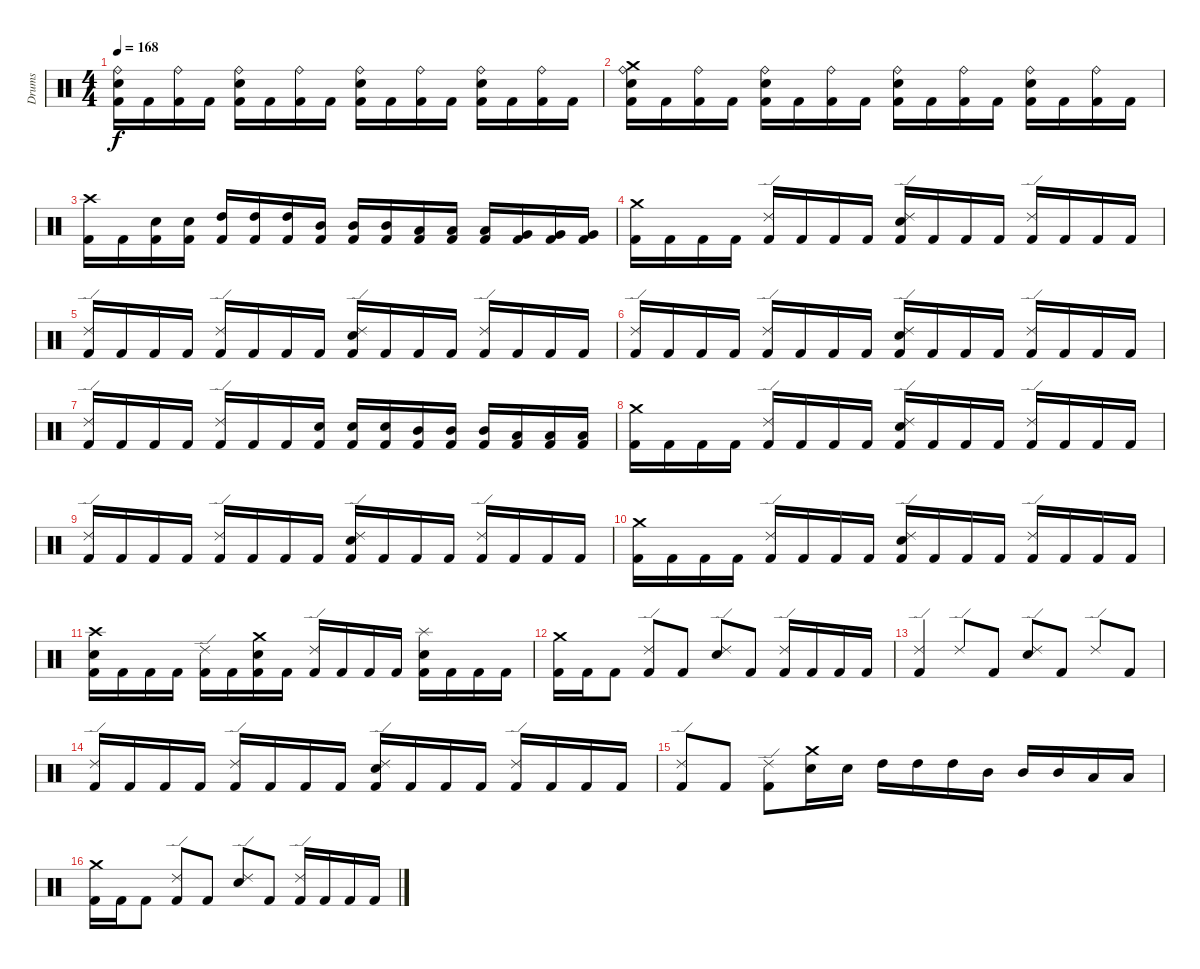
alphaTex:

\track ("Drums" "Drums") {instrument percussion}
\staff {score}
\articulation defaults
\ts (4 4)
\tempo 168
\clef neutral
\ks c
("Kick (hit) 2" "Snare (hit) 2" "Ride (bell)").16{dy f} "Kick (hit) 2".16 ("Kick (hit) 2" "Ride (bell)").16 "Kick (hit) 2".16 ("Kick (hit) 2" "Snare (hit) 2" "Ride (bell)").16 "Kick (hit) 2".16 ("Kick (hit) 2" "Ride (bell)").16 "Kick (hit) 2".16 ("Kick (hit) 2" "Snare (hit) 2" "Ride (bell)").16 "Kick (hit) 2".16 ("Kick (hit) 2" "Ride (bell)").16 "Kick (hit) 2".16 ("Kick (hit) 2" "Snare (hit) 2" "Ride (bell)").16 "Kick (hit) 2".16 ("Kick (hit) 2" "Ride (bell)").16 "Kick (hit) 2".16 |
("Kick (hit) 2" "Snare (hit) 2" "Ride (bell)" "Crash medium (hit)").16 "Kick (hit) 2".16 ("Kick (hit) 2" "Ride (bell)").16 "Kick (hit) 2".16 ("Kick (hit) 2" "Snare (hit) 2" "Ride (bell)").16 "Kick (hit) 2".16 ("Kick (hit) 2" "Ride (bell)").16 "Kick (hit) 2".16 ("Kick (hit) 2" "Snare (hit) 2" "Ride (bell)").16 "Kick (hit) 2".16 ("Kick (hit) 2" "Ride (bell)").16 "Kick (hit) 2".16 ("Kick (hit) 2" "Snare (hit) 2" "Ride (bell)").16 "Kick (hit) 2".16 ("Kick (hit) 2" "Ride (bell)").16 "Kick (hit) 2".16 |
("Kick (hit) 2" "Crash high (hit)").16 "Kick (hit) 2".16 ("Kick (hit) 2" "Snare (hit) 2").16 ("Kick (hit) 2" "Snare (hit) 2").16 ("Kick (hit) 2" "High Tom (hit)").16 ("Kick (hit) 2" "High Tom (hit)").16 ("Kick (hit) 2" "High Tom (hit)").16 ("Kick (hit) 2" "Mid Tom (hit)").16 ("Kick (hit) 2" "Mid Tom (hit)").16 ("Kick (hit) 2" "Mid Tom (hit)").16 ("Kick (hit) 2" "Low Tom (hit)").16 ("Kick (hit) 2" "Low Tom (hit)").16 ("Kick (hit) 2" "Low Tom (hit)").16 ("Kick (hit) 2" "Very Low Tom (hit)").16 ("Kick (hit) 2" "Very Low Tom (hit)").16 ("Kick (hit) 2" "Very Low Tom (hit)").16 |
("Kick (hit) 2" "Crash medium (hit)").16 "Kick (hit) 2".16 "Kick (hit) 2".16 "Kick (hit) 2".16 ("Kick (hit) 2" "Ride (edge) 2").16 "Kick (hit) 2".16 "Kick (hit) 2".16 "Kick (hit) 2".16 ("Kick (hit) 2" "Snare (hit) 2" "Ride (edge) 2").16 "Kick (hit) 2".16 "Kick (hit) 2".16 "Kick (hit) 2".16 ("Kick (hit) 2" "Ride (edge) 2").16 "Kick (hit) 2".16 "Kick (hit) 2".16 "Kick (hit) 2".16 |
("Kick (hit) 2" "Ride (edge) 2").16 "Kick (hit) 2".16 "Kick (hit) 2".16 "Kick (hit) 2".16 ("Kick (hit) 2" "Ride (edge) 2").16 "Kick (hit) 2".16 "Kick (hit) 2".16 "Kick (hit) 2".16 ("Kick (hit) 2" "Snare (hit) 2" "Ride (edge) 2").16 "Kick (hit) 2".16 "Kick (hit) 2".16 "Kick (hit) 2".16 ("Kick (hit) 2" "Ride (edge) 2").16 "Kick (hit) 2".16 "Kick (hit) 2".16 "Kick (hit) 2".16 |
("Kick (hit) 2" "Ride (edge) 2").16 "Kick (hit) 2".16 "Kick (hit) 2".16 "Kick (hit) 2".16 ("Kick (hit) 2" "Ride (edge) 2").16 "Kick (hit) 2".16 "Kick (hit) 2".16 "Kick (hit) 2".16 ("Kick (hit) 2" "Snare (hit) 2" "Ride (edge) 2").16 "Kick (hit) 2".16 "Kick (hit) 2".16 "Kick (hit) 2".16 ("Kick (hit) 2" "Ride (edge) 2").16 "Kick (hit) 2".16 "Kick (hit) 2".16 "Kick (hit) 2".16 |
("Kick (hit) 2" "Ride (edge) 2").16 "Kick (hit) 2".16 "Kick (hit) 2".16 "Kick (hit) 2".16 ("Kick (hit) 2" "Ride (edge) 2").16 "Kick (hit) 2".16 "Kick (hit) 2".16 ("Kick (hit) 2" "Snare (hit) 2").16 ("Kick (hit) 2" "Snare (hit) 2").16 ("Kick (hit) 2" "Snare (hit) 2").16 ("Kick (hit) 2" "Mid Tom (hit)").16 ("Kick (hit) 2" "Mid Tom (hit)").16 ("Kick (hit) 2" "Mid Tom (hit)").16 ("Kick (hit) 2" "Low Tom (hit)").16 ("Kick (hit) 2" "Low Tom (hit)").16 ("Kick (hit) 2" "Low Tom (hit)").16 |
("Kick (hit) 2" "Crash medium (hit)").16 "Kick (hit) 2".16 "Kick (hit) 2".16 "Kick (hit) 2".16 ("Kick (hit) 2" "Ride (edge) 2").16 "Kick (hit) 2".16 "Kick (hit) 2".16 "Kick (hit) 2".16 ("Kick (hit) 2" "Snare (hit) 2" "Ride (edge) 2").16 "Kick (hit) 2".16 "Kick (hit) 2".16 "Kick (hit) 2".16 ("Kick (hit) 2" "Ride (edge) 2").16 "Kick (hit) 2".16 "Kick (hit) 2".16 "Kick (hit) 2".16 |
("Kick (hit) 2" "Ride (edge) 2").16 "Kick (hit) 2".16 "Kick (hit) 2".16 "Kick (hit) 2".16 ("Kick (hit) 2" "Ride (edge) 2").16 "Kick (hit) 2".16 "Kick (hit) 2".16 "Kick (hit) 2".16 ("Kick (hit) 2" "Snare (hit) 2" "Ride (edge) 2").16 "Kick (hit) 2".16 "Kick (hit) 2".16 "Kick (hit) 2".16 ("Kick (hit) 2" "Ride (edge) 2").16 "Kick (hit) 2".16 "Kick (hit) 2".16 "Kick (hit) 2".16 |
("Kick (hit) 2" "Crash medium (hit)").16 "Kick (hit) 2".16 "Kick (hit) 2".16 "Kick (hit) 2".16 ("Kick (hit) 2" "Ride (edge) 2").16 "Kick (hit) 2".16 "Kick (hit) 2".16 "Kick (hit) 2".16 ("Kick (hit) 2" "Snare (hit) 2" "Ride (edge) 2").16 "Kick (hit) 2".16 "Kick (hit) 2".16 "Kick (hit) 2".16 ("Kick (hit) 2" "Ride (edge) 2").16 "Kick (hit) 2".16 "Kick (hit) 2".16 "Kick (hit) 2".16 |
("Kick (hit) 2" "Snare (hit) 2" "Crash high (hit)").16 "Kick (hit) 2".16 "Kick (hit) 2".16 "Kick (hit) 2".16 ("Kick (hit) 2" "Ride (edge) 2").16 "Kick (hit) 2".16 ("Kick (hit) 2" "Snare (hit) 2" "Crash medium (hit)").16 "Kick (hit) 2".16 ("Kick (hit) 2" "Ride (edge) 2").16 "Kick (hit) 2".16 "Kick (hit) 2".16 "Kick (hit) 2".16 ("Kick (hit) 2" "Snare (hit) 2" "Splash (hit)").16 "Kick (hit) 2".16 "Kick (hit) 2".16 "Kick (hit) 2".16 |
("Kick (hit) 2" "Crash medium (hit)").16 "Kick (hit) 2".16 "Kick (hit) 2".8 ("Kick (hit) 2" "Ride (edge) 2").8 "Kick (hit) 2".8 ("Snare (hit) 2" "Ride (edge) 2").8 "Kick (hit) 2".8 ("Kick (hit) 2" "Ride (edge) 2").16 "Kick (hit) 2".16 "Kick (hit) 2".16 "Kick (hit) 2".16 |
("Kick (hit) 2" "Ride (edge) 2").4 "Ride (edge) 2".8 "Kick (hit) 2".8 ("Snare (hit) 2" "Ride (edge) 2").8 "Kick (hit) 2".8 "Ride (edge) 2".8 "Kick (hit) 2".8 |
("Kick (hit) 2" "Ride (edge) 2").16 "Kick (hit) 2".16 "Kick (hit) 2".16 "Kick (hit) 2".16 ("Kick (hit) 2" "Ride (edge) 2").16 "Kick (hit) 2".16 "Kick (hit) 2".16 "Kick (hit) 2".16 ("Kick (hit) 2" "Snare (hit) 2" "Ride (edge) 2").16 "Kick (hit) 2".16 "Kick (hit) 2".16 "Kick (hit) 2".16 ("Kick (hit) 2" "Ride (edge) 2").16 "Kick (hit) 2".16 "Kick (hit) 2".16 "Kick (hit) 2".16 |
("Kick (hit) 2" "Ride (edge) 2").8 "Kick (hit) 2".8 ("Kick (hit) 2" "Ride (edge) 2").8 ("Snare (hit) 2" "Crash medium (hit)").16 "Snare (hit) 2".16 "High Tom (hit)".16 "High Tom (hit)".16 "High Tom (hit)".16 "Mid Tom (hit)".16 "Mid Tom (hit)".16 "Mid Tom (hit)".16 "Low Tom (hit)".16 "Low Tom (hit)".16 |
("Kick (hit) 2" "Crash medium (hit)").16 "Kick (hit) 2".16 "Kick (hit) 2".8 ("Kick (hit) 2" "Ride (edge) 2").8 "Kick (hit) 2".8 ("Snare (hit) 2" "Ride (edge) 2").8 "Kick (hit) 2".8 ("Kick (hit) 2" "Ride (edge) 2").16 "Kick (hit) 2".16 "Kick (hit) 2".16 "Kick (hit) 2".16
